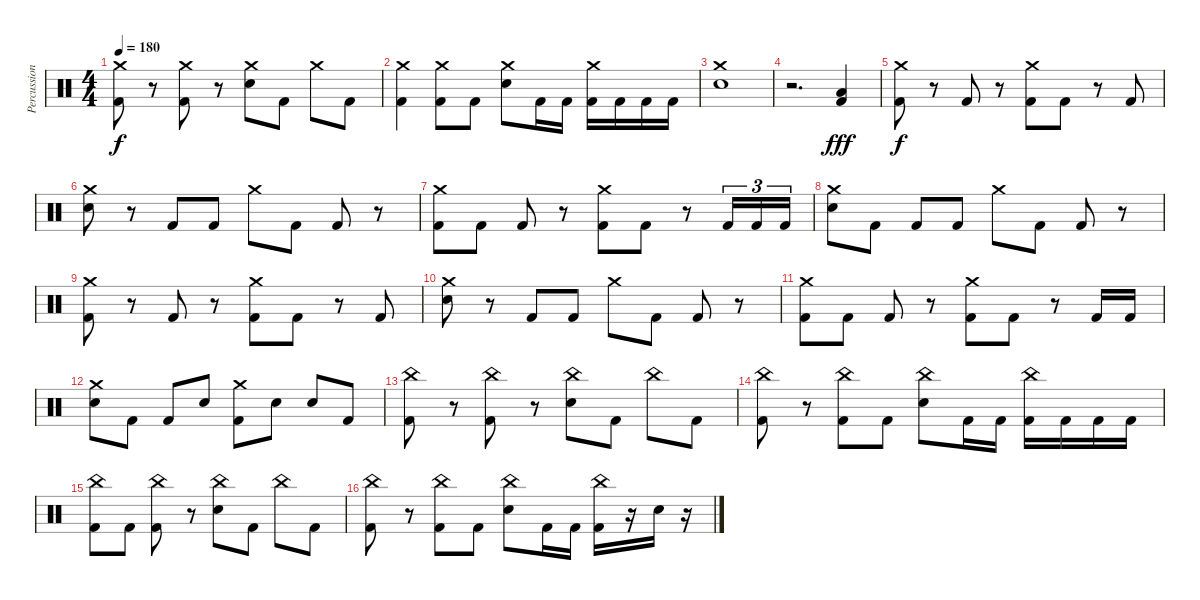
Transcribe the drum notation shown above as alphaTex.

\track ("Percussion" "Percussion") {instrument percussion}
\staff {score}
\articulation defaults
\ts (4 4)
\tempo 180
\clef neutral
\ks c
("Crash medium (hit)" "Kick (hit) 2").8{dy f} r.8 ("Crash medium (hit)" "Kick (hit) 2").8 r.8 ("Crash medium (hit)" "Electric Snare (hit)").8 "Kick (hit) 2".8 "Crash medium (hit)".8 "Kick (hit) 2".8 |
("Crash medium (hit)" "Kick (hit) 2").4 ("Crash medium (hit)" "Kick (hit) 2").8 "Kick (hit) 2".8 ("Crash medium (hit)" "Electric Snare (hit)").8 "Kick (hit) 2".16 "Kick (hit) 2".16 ("Crash medium (hit)" "Kick (hit) 2").16 "Kick (hit) 2".16 "Kick (hit) 2".16 "Kick (hit) 2".16 |
("Crash medium (hit)" "Electric Snare (hit)").1 |
r.2{d} ("Low Floor Tom (hit)" "Kick (hit) 2").4{dy fff} |
("Crash medium (hit)" "Kick (hit) 2").8{dy f} r.8 "Kick (hit) 2".8 r.8 ("Crash medium (hit)" "Kick (hit) 2").8 "Kick (hit) 2".8 r.8 "Kick (hit) 2".8 |
("Crash medium (hit)" "Electric Snare (hit)").8 r.8 "Kick (hit) 2".8 "Kick (hit) 2".8 "Crash medium (hit)".8 "Kick (hit) 2".8 "Kick (hit) 2".8 r.8 |
("Crash medium (hit)" "Kick (hit) 2").8 "Kick (hit) 2".8 "Kick (hit) 2".8 r.8 ("Crash medium (hit)" "Kick (hit) 2").8 "Kick (hit) 2".8 r.8 "Kick (hit) 2".16{tu (3 2)} "Kick (hit) 2".16{tu (3 2)} "Kick (hit) 2".16{tu (3 2)} |
("Crash medium (hit)" "Electric Snare (hit)").8 "Kick (hit) 2".8 "Kick (hit) 2".8 "Kick (hit) 2".8 "Crash medium (hit)".8 "Kick (hit) 2".8 "Kick (hit) 2".8 r.8 |
("Crash medium (hit)" "Kick (hit) 2").8 r.8 "Kick (hit) 2".8 r.8 ("Crash medium (hit)" "Kick (hit) 2").8 "Kick (hit) 2".8 r.8 "Kick (hit) 2".8 |
("Crash medium (hit)" "Electric Snare (hit)").8 r.8 "Kick (hit) 2".8 "Kick (hit) 2".8 "Crash medium (hit)".8 "Kick (hit) 2".8 "Kick (hit) 2".8 r.8 |
("Crash medium (hit)" "Kick (hit) 2").8 "Kick (hit) 2".8 "Kick (hit) 2".8 r.8 ("Crash medium (hit)" "Kick (hit) 2").8 "Kick (hit) 2".8 r.8 "Kick (hit) 2".16 "Kick (hit) 2".16 |
("Crash medium (hit)" "Electric Snare (hit)").8 "Kick (hit) 2".8 "Kick (hit) 2".8 "Electric Snare (hit)".8 ("Crash medium (hit)" "Kick (hit) 2").8 "Electric Snare (hit)".8 "Electric Snare (hit)".8 "Kick (hit) 2".8 |
("China (hit)" "Kick (hit) 2").8 r.8 ("China (hit)" "Kick (hit) 2").8 r.8 ("China (hit)" "Electric Snare (hit)").8 "Kick (hit) 2".8 "China (hit)".8 "Kick (hit) 2".8 |
("China (hit)" "Kick (hit) 2").8 r.8 ("China (hit)" "Kick (hit) 2").8 "Kick (hit) 2".8 ("China (hit)" "Electric Snare (hit)").8 "Kick (hit) 2".16 "Kick (hit) 2".16 ("China (hit)" "Kick (hit) 2").16 "Kick (hit) 2".16 "Kick (hit) 2".16 "Kick (hit) 2".16 |
("China (hit)" "Kick (hit) 2").8 "Kick (hit) 2".8 ("China (hit)" "Kick (hit) 2").8 r.8 ("China (hit)" "Electric Snare (hit)").8 "Kick (hit) 2".8 "China (hit)".8 "Kick (hit) 2".8 |
("China (hit)" "Kick (hit) 2").8 r.8 ("China (hit)" "Kick (hit) 2").8 "Kick (hit) 2".8 ("China (hit)" "Electric Snare (hit)").8 "Kick (hit) 2".16 "Kick (hit) 2".16 ("China (hit)" "Kick (hit) 2").16 r.16 "Electric Snare (hit)".16 r.16
